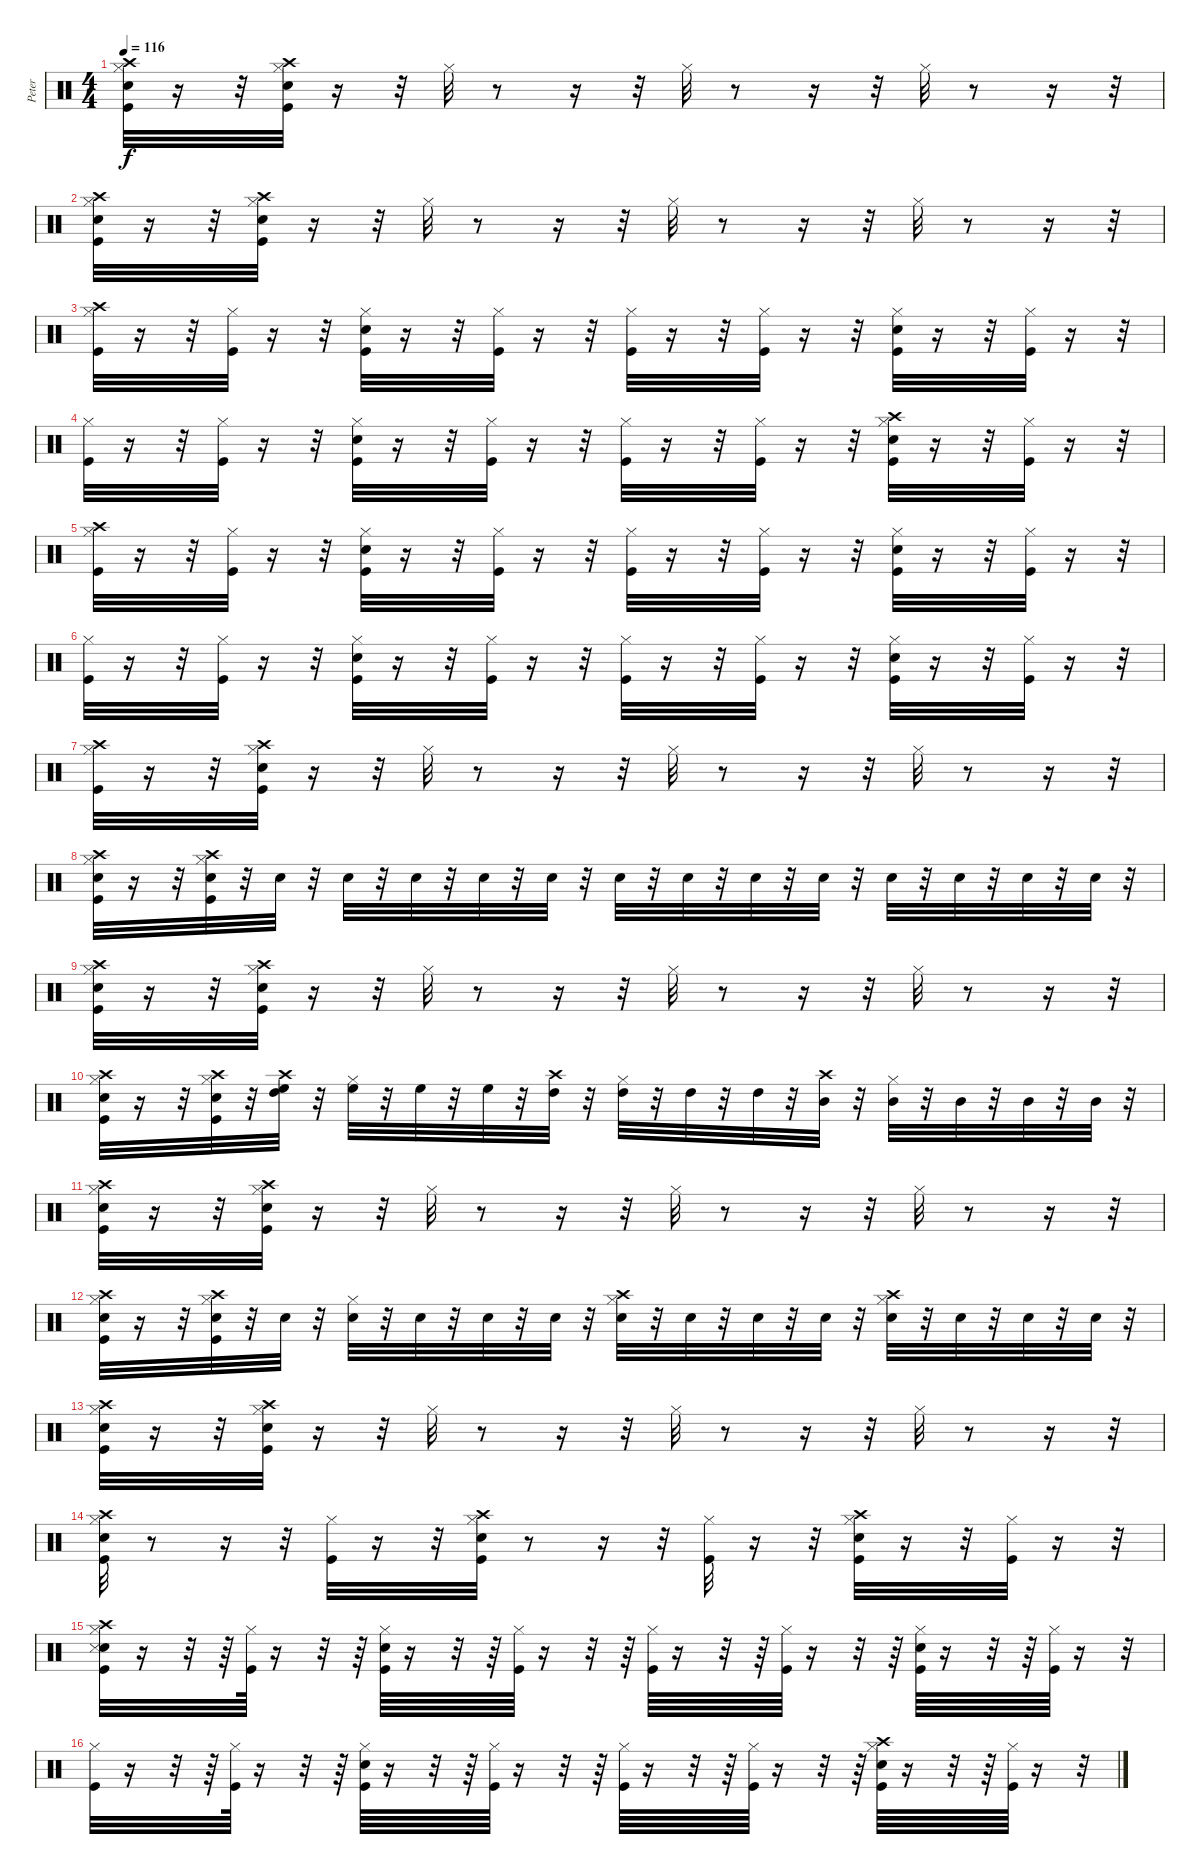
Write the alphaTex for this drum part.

\track ("Peter" "Peter") {instrument percussion}
\staff {score}
\articulation defaults
\ts (4 4)
\tempo 116
\clef neutral
\ks c
("Kick (hit)" "Snare (hit) 2" "Hi-Hat (closed)" "Crash high (hit)").32{dy f} r.16 r.32 ("Kick (hit)" "Snare (hit) 2" "Hi-Hat (closed)" "Crash high (hit)").32 r.16 r.32 "Hi-Hat (closed)".32 r.8 r.16 r.32 "Hi-Hat (closed)".32 r.8 r.16 r.32 "Hi-Hat (closed)".32 r.8 r.16 r.32 |
("Kick (hit)" "Snare (hit) 2" "Hi-Hat (closed)" "Crash high (hit)").32 r.16 r.32 ("Kick (hit)" "Snare (hit) 2" "Hi-Hat (closed)" "Crash high (hit)").32 r.16 r.32 "Hi-Hat (closed)".32 r.8 r.16 r.32 "Hi-Hat (closed)".32 r.8 r.16 r.32 "Hi-Hat (closed)".32 r.8 r.16 r.32 |
("Kick (hit)" "Hi-Hat (closed)" "Crash high (hit)").32 r.16 r.32 ("Kick (hit)" "Hi-Hat (closed)").32 r.16 r.32 ("Snare (hit) 2" "Kick (hit)" "Hi-Hat (closed)").32 r.16 r.32 ("Kick (hit)" "Hi-Hat (closed)").32 r.16 r.32 ("Kick (hit)" "Hi-Hat (closed)").32 r.16 r.32 ("Hi-Hat (closed)" "Kick (hit)").32 r.16 r.32 ("Snare (hit) 2" "Hi-Hat (closed)" "Kick (hit)").32 r.16 r.32 ("Hi-Hat (closed)" "Kick (hit)").32 r.16 r.32 |
("Hi-Hat (closed)" "Kick (hit)").32 r.16 r.32 ("Hi-Hat (closed)" "Kick (hit)").32 r.16 r.32 ("Hi-Hat (closed)" "Kick (hit)" "Snare (hit) 2").32 r.16 r.32 ("Hi-Hat (closed)" "Kick (hit)").32 r.16 r.32 ("Hi-Hat (closed)" "Kick (hit)").32 r.16 r.32 ("Hi-Hat (closed)" "Kick (hit)").32 r.16 r.32 ("Hi-Hat (closed)" "Kick (hit)" "Crash high (hit)" "Snare (hit) 2").32 r.16 r.32 ("Hi-Hat (closed)" "Kick (hit)").32 r.16 r.32 |
("Hi-Hat (closed)" "Kick (hit)" "Crash high (hit)").32 r.16 r.32 ("Hi-Hat (closed)" "Kick (hit)").32 r.16 r.32 ("Snare (hit) 2" "Hi-Hat (closed)" "Kick (hit)").32 r.16 r.32 ("Hi-Hat (closed)" "Kick (hit)").32 r.16 r.32 ("Hi-Hat (closed)" "Kick (hit)").32 r.16 r.32 ("Hi-Hat (closed)" "Kick (hit)").32 r.16 r.32 ("Snare (hit) 2" "Hi-Hat (closed)" "Kick (hit)").32 r.16 r.32 ("Hi-Hat (closed)" "Kick (hit)").32 r.16 r.32 |
("Hi-Hat (closed)" "Kick (hit)").32 r.16 r.32 ("Hi-Hat (closed)" "Kick (hit)").32 r.16 r.32 ("Hi-Hat (closed)" "Snare (hit) 2" "Kick (hit)").32 r.16 r.32 ("Hi-Hat (closed)" "Kick (hit)").32 r.16 r.32 ("Hi-Hat (closed)" "Kick (hit)").32 r.16 r.32 ("Hi-Hat (closed)" "Kick (hit)").32 r.16 r.32 ("Hi-Hat (closed)" "Snare (hit) 2" "Kick (hit)").32 r.16 r.32 ("Kick (hit)" "Hi-Hat (closed)").32 r.16 r.32 |
("Crash high (hit)" "Hi-Hat (closed)" "Kick (hit)").32 r.16 r.32 ("Kick (hit)" "Snare (hit) 2" "Hi-Hat (closed)" "Crash high (hit)").32 r.16 r.32 "Hi-Hat (closed)".32 r.8 r.16 r.32 "Hi-Hat (closed)".32 r.8 r.16 r.32 "Hi-Hat (closed)".32 r.8 r.16 r.32 |
("Kick (hit)" "Snare (hit) 2" "Hi-Hat (closed)" "Crash high (hit)").32 r.16 r.32 ("Kick (hit)" "Snare (hit) 2" "Hi-Hat (closed)" "Crash high (hit)").32 r.32 "Snare (hit) 2".32 r.32 "Snare (hit) 2".32 r.32 "Snare (hit) 2".32 r.32 "Snare (hit) 2".32 r.32 "Snare (hit) 2".32 r.32 "Snare (hit) 2".32 r.32 "Snare (hit) 2".32 r.32 "Snare (hit) 2".32 r.32 "Snare (hit) 2".32 r.32 "Snare (hit) 2".32 r.32 "Snare (hit) 2".32 r.32 "Snare (hit) 2".32 r.32 "Snare (hit) 2".32 r.32 |
("Kick (hit)" "Snare (hit) 2" "Hi-Hat (closed)" "Crash high (hit)").32 r.16 r.32 ("Kick (hit)" "Snare (hit) 2" "Hi-Hat (closed)" "Crash high (hit)").32 r.16 r.32 "Hi-Hat (closed)".32 r.8 r.16 r.32 "Hi-Hat (closed)".32 r.8 r.16 r.32 "Hi-Hat (closed)".32 r.8 r.16 r.32 |
("Crash high (hit)" "Kick (hit)" "Snare (hit) 2" "Hi-Hat (closed)").32 r.16 r.32 ("Crash high (hit)" "Kick (hit)" "Snare (hit) 2" "Hi-Hat (closed)").32 r.32 ("High Floor Tom (hit)" "High Tom (hit)" "Crash high (hit)").32 r.32 ("Hi-Hat (closed)" "High Floor Tom (hit)").32 r.32 "High Floor Tom (hit)".32 r.32 "High Floor Tom (hit)".32 r.32 ("Crash high (hit)" "High Tom (hit)").32 r.32 ("Hi-Hat (closed)" "High Tom (hit)").32 r.32 "High Tom (hit)".32 r.32 "High Tom (hit)".32 r.32 ("Crash high (hit)" "Mid Tom (hit)").32 r.32 ("Hi-Hat (closed)" "Mid Tom (hit)").32 r.32 "Mid Tom (hit)".32 r.32 "Mid Tom (hit)".32 r.32 "Mid Tom (hit)".32 r.32 |
("Snare (hit) 2" "Kick (hit)" "Crash high (hit)" "Hi-Hat (closed)").32 r.16 r.32 ("Snare (hit) 2" "Kick (hit)" "Hi-Hat (closed)" "Crash high (hit)").32 r.16 r.32 "Hi-Hat (closed)".32 r.8 r.16 r.32 "Hi-Hat (closed)".32 r.8 r.16 r.32 "Hi-Hat (closed)".32 r.8 r.16 r.32 |
("Kick (hit)" "Snare (hit) 2" "Hi-Hat (closed)" "Crash high (hit)").32 r.16 r.32 ("Kick (hit)" "Snare (hit) 2" "Hi-Hat (closed)" "Crash high (hit)").32 r.32 "Snare (hit) 2".32 r.32 ("Snare (hit) 2" "Hi-Hat (closed)").32 r.32 "Snare (hit) 2".32 r.32 "Snare (hit) 2".32 r.32 "Snare (hit) 2".32 r.32 ("Crash high (hit)" "Snare (hit) 2" "Hi-Hat (closed)").32 r.32 "Snare (hit) 2".32 r.32 "Snare (hit) 2".32 r.32 "Snare (hit) 2".32 r.32 ("Crash high (hit)" "Snare (hit) 2" "Hi-Hat (closed)").32 r.32 "Snare (hit) 2".32 r.32 "Snare (hit) 2".32 r.32 "Snare (hit) 2".32 r.32 |
("Kick (hit)" "Snare (hit) 2" "Hi-Hat (closed)" "Crash high (hit)").32 r.16 r.32 ("Kick (hit)" "Snare (hit) 2" "Hi-Hat (closed)" "Crash high (hit)").32 r.16 r.32 "Hi-Hat (closed)".32 r.8 r.16 r.32 "Hi-Hat (closed)".32 r.8 r.16 r.32 "Hi-Hat (closed)".32 r.8 r.16 r.32 |
("Kick (hit)" "Snare (hit) 2" "Hi-Hat (closed)" "Crash high (hit)").32 r.8 r.16 r.32 ("Kick (hit)" "Hi-Hat (closed)").32 r.16 r.32 ("Kick (hit)" "Snare (hit) 2" "Hi-Hat (closed)" "Crash high (hit)").32 r.8 r.16 r.32 ("Kick (hit)" "Hi-Hat (closed)").32 r.16 r.32 ("Kick (hit)" "Snare (hit) 2" "Hi-Hat (closed)" "Crash high (hit)").32 r.16 r.32 ("Kick (hit)" "Hi-Hat (closed)").32 r.16 r.32 |
("Snare (hit) 2" "Snare (side stick) 3" "Kick (hit)" "Crash high (hit)" "Hi-Hat (closed)").32 r.16 r.32 r.64 ("Kick (hit)" "Hi-Hat (closed)").64 r.16 r.32 r.64 ("Kick (hit)" "Snare (hit) 2" "Hi-Hat (closed)").64 r.16 r.32 r.64 ("Kick (hit)" "Hi-Hat (closed)").64 r.16 r.32 r.64 ("Kick (hit)" "Hi-Hat (closed)").64 r.16 r.32 r.64 ("Kick (hit)" "Hi-Hat (closed)").64 r.16 r.32 r.64 ("Kick (hit)" "Snare (hit) 2" "Hi-Hat (closed)").64 r.16 r.32 r.64 ("Kick (hit)" "Hi-Hat (closed)").64 r.16 r.32 |
("Kick (hit)" "Hi-Hat (closed)").32 r.16 r.32 r.64 ("Kick (hit)" "Hi-Hat (closed)").64 r.16 r.32 r.64 ("Kick (hit)" "Snare (hit) 2" "Hi-Hat (closed)").64 r.16 r.32 r.64 ("Kick (hit)" "Hi-Hat (closed)").64 r.16 r.32 r.64 ("Kick (hit)" "Hi-Hat (closed)").64 r.16 r.32 r.64 ("Kick (hit)" "Hi-Hat (closed)").64 r.16 r.32 r.64 ("Crash high (hit)" "Kick (hit)" "Snare (hit) 2" "Hi-Hat (closed)").64 r.16 r.32 r.64 ("Kick (hit)" "Hi-Hat (closed)").64 r.16 r.32
